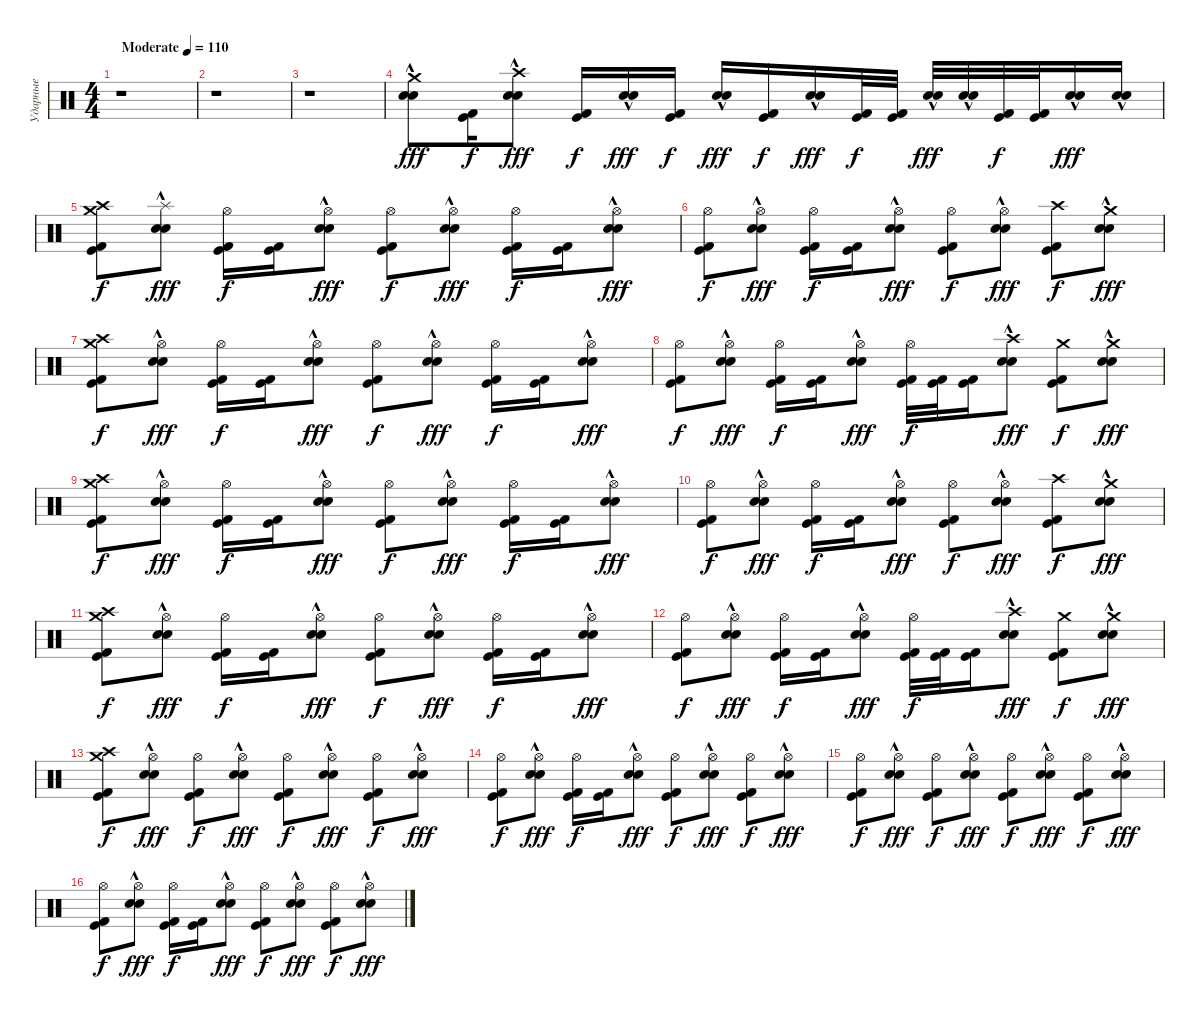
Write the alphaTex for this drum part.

\track ("Ударные" "Ударные") {instrument percussion}
\staff {score}
\articulation defaults
\ts (4 4)
\tempo (110 "Moderate")
\clef neutral
\ks c
r.1{dy fff} |
r.1 |
r.1 |
("Crash medium (hit)" "Snare (hit) 2"{hac} "Electric Snare (hit)"{hac}).8 ("Kick (hit)" "Kick (hit) 2").16{dy f} ("Crash high (hit)" "Snare (hit) 2"{hac} "Electric Snare (hit)"{hac}).8{dy fff} ("Kick (hit)" "Kick (hit) 2").16{dy f} ("Snare (hit) 2"{hac} "Electric Snare (hit)"{hac}).16{dy fff} ("Kick (hit)" "Kick (hit) 2").16{dy f} ("Snare (hit) 2"{hac} "Electric Snare (hit)"{hac}).16{dy fff} ("Kick (hit)" "Kick (hit) 2").16{dy f} ("Snare (hit) 2"{hac} "Electric Snare (hit)"{hac}).16{dy fff} ("Kick (hit)" "Kick (hit) 2").32{dy f} ("Kick (hit)" "Kick (hit) 2").32 ("Snare (hit) 2"{hac} "Electric Snare (hit)"{hac}).32{dy fff} ("Snare (hit) 2"{hac} "Electric Snare (hit)"{hac}).32 ("Kick (hit)" "Kick (hit) 2").32{dy f} ("Kick (hit)" "Kick (hit) 2").32 ("Snare (hit) 2"{hac} "Electric Snare (hit)"{hac}).16{dy fff} ("Snare (hit) 2"{hac} "Electric Snare (hit)"{hac}).16 |
("Crash high (hit)" "Kick (hit)" "Kick (hit) 2" "Crash medium (hit)").8{dy f} ("Splash (hit)" "Snare (hit) 2"{hac} "Electric Snare (hit)"{hac}).8{dy fff} ("Hi-Hat (open)" "Kick (hit)" "Kick (hit) 2").16{dy f} ("Kick (hit)" "Kick (hit) 2").16 ("Hi-Hat (open)" "Snare (hit) 2"{hac} "Electric Snare (hit)"{hac}).8{dy fff} ("Hi-Hat (open)" "Kick (hit)" "Kick (hit) 2").8{dy f} ("Hi-Hat (open)" "Snare (hit) 2"{hac} "Electric Snare (hit)"{hac}).8{dy fff} ("Hi-Hat (open)" "Kick (hit)" "Kick (hit) 2").16{dy f} ("Kick (hit)" "Kick (hit) 2").16 ("Hi-Hat (open)" "Snare (hit) 2"{hac} "Electric Snare (hit)"{hac}).8{dy fff} |
("Hi-Hat (open)" "Kick (hit)" "Kick (hit) 2").8{dy f} ("Hi-Hat (open)" "Snare (hit) 2"{hac} "Electric Snare (hit)"{hac}).8{dy fff} ("Hi-Hat (open)" "Kick (hit)" "Kick (hit) 2").16{dy f} ("Kick (hit)" "Kick (hit) 2").16 ("Hi-Hat (open)" "Snare (hit) 2"{hac} "Electric Snare (hit)"{hac}).8{dy fff} ("Hi-Hat (open)" "Kick (hit)" "Kick (hit) 2").8{dy f} ("Hi-Hat (open)" "Snare (hit) 2"{hac} "Electric Snare (hit)"{hac}).8{dy fff} ("Crash high (hit)" "Kick (hit)" "Kick (hit) 2").8{dy f} ("Crash medium (hit)" "Snare (hit) 2"{hac} "Electric Snare (hit)"{hac}).8{dy fff} |
("Crash high (hit)" "Kick (hit)" "Kick (hit) 2" "Crash medium (hit)").8{dy f} ("Hi-Hat (open)" "Snare (hit) 2"{hac} "Electric Snare (hit)"{hac}).8{dy fff} ("Hi-Hat (open)" "Kick (hit)" "Kick (hit) 2").16{dy f} ("Kick (hit)" "Kick (hit) 2").16 ("Hi-Hat (open)" "Snare (hit) 2"{hac} "Electric Snare (hit)"{hac}).8{dy fff} ("Hi-Hat (open)" "Kick (hit)" "Kick (hit) 2").8{dy f} ("Hi-Hat (open)" "Snare (hit) 2"{hac} "Electric Snare (hit)"{hac}).8{dy fff} ("Hi-Hat (open)" "Kick (hit)" "Kick (hit) 2").16{dy f} ("Kick (hit)" "Kick (hit) 2").16 ("Hi-Hat (open)" "Snare (hit) 2"{hac} "Electric Snare (hit)"{hac}).8{dy fff} |
("Hi-Hat (open)" "Kick (hit)" "Kick (hit) 2").8{dy f} ("Hi-Hat (open)" "Snare (hit) 2"{hac} "Electric Snare (hit)"{hac}).8{dy fff} ("Hi-Hat (open)" "Kick (hit)" "Kick (hit) 2").16{dy f} ("Kick (hit)" "Kick (hit) 2").16 ("Hi-Hat (open)" "Snare (hit) 2"{hac} "Electric Snare (hit)"{hac}).8{dy fff} ("Hi-Hat (open)" "Kick (hit)" "Kick (hit) 2").32{dy f} ("Kick (hit)" "Kick (hit) 2").32 ("Kick (hit)" "Kick (hit) 2").16 ("Crash high (hit)" "Snare (hit) 2"{hac} "Electric Snare (hit)"{hac}).8{dy fff} ("Crash medium (hit)" "Kick (hit)" "Kick (hit) 2").8{dy f} ("Crash medium (hit)" "Snare (hit) 2"{hac} "Electric Snare (hit)"{hac}).8{dy fff} |
("Crash high (hit)" "Kick (hit)" "Kick (hit) 2" "Crash medium (hit)").8{dy f} ("Hi-Hat (open)" "Snare (hit) 2"{hac} "Electric Snare (hit)"{hac}).8{dy fff} ("Hi-Hat (open)" "Kick (hit)" "Kick (hit) 2").16{dy f} ("Kick (hit)" "Kick (hit) 2").16 ("Hi-Hat (open)" "Snare (hit) 2"{hac} "Electric Snare (hit)"{hac}).8{dy fff} ("Hi-Hat (open)" "Kick (hit)" "Kick (hit) 2").8{dy f} ("Hi-Hat (open)" "Snare (hit) 2"{hac} "Electric Snare (hit)"{hac}).8{dy fff} ("Hi-Hat (open)" "Kick (hit)" "Kick (hit) 2").16{dy f} ("Kick (hit)" "Kick (hit) 2").16 ("Hi-Hat (open)" "Snare (hit) 2"{hac} "Electric Snare (hit)"{hac}).8{dy fff} |
("Hi-Hat (open)" "Kick (hit)" "Kick (hit) 2").8{dy f} ("Hi-Hat (open)" "Snare (hit) 2"{hac} "Electric Snare (hit)"{hac}).8{dy fff} ("Hi-Hat (open)" "Kick (hit)" "Kick (hit) 2").16{dy f} ("Kick (hit)" "Kick (hit) 2").16 ("Hi-Hat (open)" "Snare (hit) 2"{hac} "Electric Snare (hit)"{hac}).8{dy fff} ("Hi-Hat (open)" "Kick (hit)" "Kick (hit) 2").8{dy f} ("Hi-Hat (open)" "Snare (hit) 2"{hac} "Electric Snare (hit)"{hac}).8{dy fff} ("Crash high (hit)" "Kick (hit)" "Kick (hit) 2").8{dy f} ("Crash medium (hit)" "Snare (hit) 2"{hac} "Electric Snare (hit)"{hac}).8{dy fff} |
("Crash high (hit)" "Kick (hit)" "Kick (hit) 2" "Crash medium (hit)").8{dy f} ("Hi-Hat (open)" "Snare (hit) 2"{hac} "Electric Snare (hit)"{hac}).8{dy fff} ("Hi-Hat (open)" "Kick (hit)" "Kick (hit) 2").16{dy f} ("Kick (hit)" "Kick (hit) 2").16 ("Hi-Hat (open)" "Snare (hit) 2"{hac} "Electric Snare (hit)"{hac}).8{dy fff} ("Hi-Hat (open)" "Kick (hit)" "Kick (hit) 2").8{dy f} ("Hi-Hat (open)" "Snare (hit) 2"{hac} "Electric Snare (hit)"{hac}).8{dy fff} ("Hi-Hat (open)" "Kick (hit)" "Kick (hit) 2").16{dy f} ("Kick (hit)" "Kick (hit) 2").16 ("Hi-Hat (open)" "Snare (hit) 2"{hac} "Electric Snare (hit)"{hac}).8{dy fff} |
("Hi-Hat (open)" "Kick (hit)" "Kick (hit) 2").8{dy f} ("Hi-Hat (open)" "Snare (hit) 2"{hac} "Electric Snare (hit)"{hac}).8{dy fff} ("Hi-Hat (open)" "Kick (hit)" "Kick (hit) 2").16{dy f} ("Kick (hit)" "Kick (hit) 2").16 ("Hi-Hat (open)" "Snare (hit) 2"{hac} "Electric Snare (hit)"{hac}).8{dy fff} ("Hi-Hat (open)" "Kick (hit)" "Kick (hit) 2").32{dy f} ("Kick (hit)" "Kick (hit) 2").32 ("Kick (hit)" "Kick (hit) 2").16 ("Crash high (hit)" "Snare (hit) 2"{hac} "Electric Snare (hit)"{hac}).8{dy fff} ("Crash medium (hit)" "Kick (hit)" "Kick (hit) 2").8{dy f} ("Crash medium (hit)" "Snare (hit) 2"{hac} "Electric Snare (hit)"{hac}).8{dy fff} |
("Crash high (hit)" "Kick (hit)" "Kick (hit) 2" "Crash medium (hit)").8{dy f} ("Hi-Hat (open)" "Snare (hit) 2"{hac} "Electric Snare (hit)"{hac}).8{dy fff} ("Hi-Hat (open)" "Kick (hit)" "Kick (hit) 2").8{dy f} ("Hi-Hat (open)" "Snare (hit) 2"{hac} "Electric Snare (hit)"{hac}).8{dy fff} ("Hi-Hat (open)" "Kick (hit)" "Kick (hit) 2").8{dy f} ("Hi-Hat (open)" "Snare (hit) 2"{hac} "Electric Snare (hit)"{hac}).8{dy fff} ("Hi-Hat (open)" "Kick (hit)" "Kick (hit) 2").8{dy f} ("Hi-Hat (open)" "Snare (hit) 2"{hac} "Electric Snare (hit)"{hac}).8{dy fff} |
("Hi-Hat (open)" "Kick (hit)" "Kick (hit) 2").8{dy f} ("Hi-Hat (open)" "Snare (hit) 2"{hac} "Electric Snare (hit)"{hac}).8{dy fff} ("Hi-Hat (open)" "Kick (hit)" "Kick (hit) 2").16{dy f} ("Kick (hit)" "Kick (hit) 2").16 ("Hi-Hat (open)" "Snare (hit) 2"{hac} "Electric Snare (hit)"{hac}).8{dy fff} ("Hi-Hat (open)" "Kick (hit)" "Kick (hit) 2").8{dy f} ("Hi-Hat (open)" "Snare (hit) 2"{hac} "Electric Snare (hit)"{hac}).8{dy fff} ("Hi-Hat (open)" "Kick (hit)" "Kick (hit) 2").8{dy f} ("Hi-Hat (open)" "Snare (hit) 2"{hac} "Electric Snare (hit)"{hac}).8{dy fff} |
("Hi-Hat (open)" "Kick (hit)" "Kick (hit) 2").8{dy f} ("Hi-Hat (open)" "Snare (hit) 2"{hac} "Electric Snare (hit)"{hac}).8{dy fff} ("Hi-Hat (open)" "Kick (hit)" "Kick (hit) 2").8{dy f} ("Hi-Hat (open)" "Snare (hit) 2"{hac} "Electric Snare (hit)"{hac}).8{dy fff} ("Hi-Hat (open)" "Kick (hit)" "Kick (hit) 2").8{dy f} ("Hi-Hat (open)" "Snare (hit) 2"{hac} "Electric Snare (hit)"{hac}).8{dy fff} ("Hi-Hat (open)" "Kick (hit)" "Kick (hit) 2").8{dy f} ("Hi-Hat (open)" "Snare (hit) 2"{hac} "Electric Snare (hit)"{hac}).8{dy fff} |
("Hi-Hat (open)" "Kick (hit)" "Kick (hit) 2").8{dy f} ("Hi-Hat (open)" "Snare (hit) 2"{hac} "Electric Snare (hit)"{hac}).8{dy fff} ("Hi-Hat (open)" "Kick (hit)" "Kick (hit) 2").16{dy f} ("Kick (hit)" "Kick (hit) 2").16 ("Hi-Hat (open)" "Snare (hit) 2"{hac} "Electric Snare (hit)"{hac}).8{dy fff} ("Hi-Hat (open)" "Kick (hit)" "Kick (hit) 2").8{dy f} ("Hi-Hat (open)" "Snare (hit) 2"{hac} "Electric Snare (hit)"{hac}).8{dy fff} ("Hi-Hat (open)" "Kick (hit)" "Kick (hit) 2").8{dy f} ("Hi-Hat (open)" "Snare (hit) 2"{hac} "Electric Snare (hit)"{hac}).8{dy fff}
